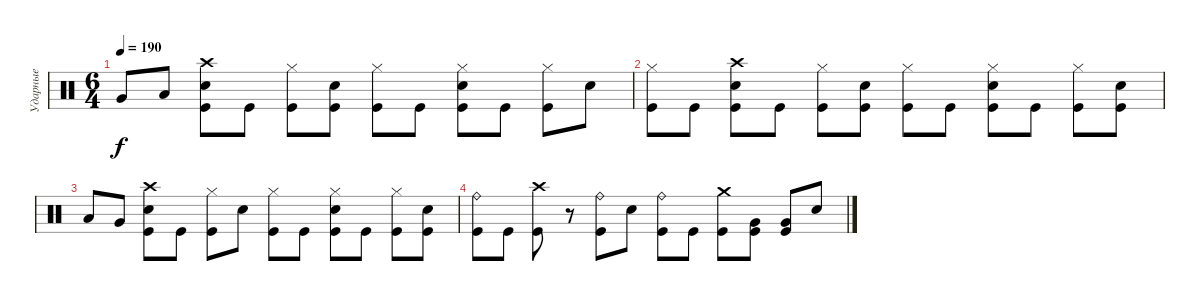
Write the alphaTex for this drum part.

\track ("Ударные" "Ударные") {instrument percussion}
\staff {score}
\articulation defaults
\ts (6 4)
\tempo 190
\clef neutral
\ks c "Very Low Tom (hit)".8{dy f} "Low Tom (hit)".8
("Crash high (hit)" "Electric Snare (hit)" "Kick (hit)").8 "Kick (hit)".8 ("Hi-Hat (closed)" "Kick (hit)").8 ("Electric Snare (hit)" "Kick (hit)").8 ("Hi-Hat (closed)" "Kick (hit)").8 "Kick (hit)".8 ("Hi-Hat (closed)" "Electric Snare (hit)" "Kick (hit)").8 "Kick (hit)".8 ("Hi-Hat (closed)" "Kick (hit)").8 "Electric Snare (hit)".8 |
("Hi-Hat (closed)" "Kick (hit)").8 "Kick (hit)".8 ("Crash high (hit)" "Electric Snare (hit)" "Kick (hit)").8 "Kick (hit)".8 ("Hi-Hat (closed)" "Kick (hit)").8 ("Electric Snare (hit)" "Kick (hit)").8 ("Hi-Hat (closed)" "Kick (hit)").8 "Kick (hit)".8 ("Hi-Hat (closed)" "Electric Snare (hit)" "Kick (hit)").8 "Kick (hit)".8 ("Hi-Hat (closed)" "Kick (hit)").8 ("Electric Snare (hit)" "Kick (hit)").8 |
"Low Tom (hit)".8 "Very Low Tom (hit)".8 ("Crash high (hit)" "Electric Snare (hit)" "Kick (hit)").8 "Kick (hit)".8 ("Hi-Hat (closed)" "Kick (hit)").8 "Electric Snare (hit)".8 ("Hi-Hat (closed)" "Kick (hit)").8 "Kick (hit)".8 ("Hi-Hat (closed)" "Electric Snare (hit)" "Kick (hit)").8 "Kick (hit)".8 ("Hi-Hat (closed)" "Kick (hit)").8 ("Electric Snare (hit)" "Kick (hit)").8 |
("Ride (bell)" "Kick (hit)").8 "Kick (hit)".8 ("Crash high (hit)" "Kick (hit)").8 r.8 ("Ride (bell)" "Kick (hit)").8 "Electric Snare (hit)".8 ("Ride (bell)" "Kick (hit)").8 "Kick (hit)".8 ("Crash medium (hit)" "Kick (hit)").8 ("Very Low Tom (hit)" "Kick (hit)").8 ("Very Low Tom (hit)" "Kick (hit)").8 "Electric Snare (hit)".8
